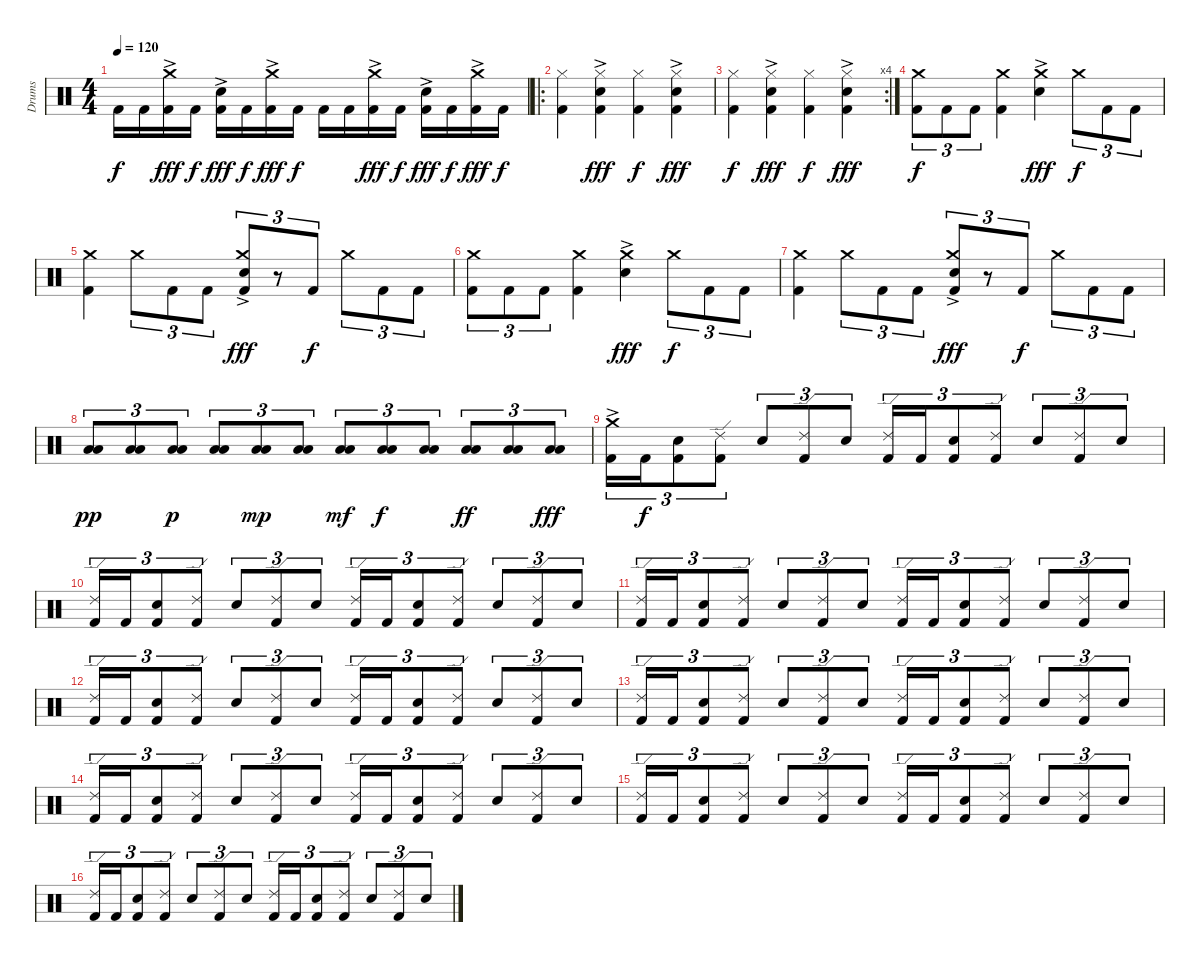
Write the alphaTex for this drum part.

\track ("Drums" "Drums") {instrument percussion}
\staff {score}
\articulation defaults
\ts (4 4)
\tempo 120
\clef neutral
\ks c "Kick (hit) 2".16{dy f} "Kick (hit) 2".16
("Crash medium (hit)"{ac} "Kick (hit) 2").16{dy fff} "Kick (hit) 2".16{dy f} ("Electric Snare (hit)"{ac} "Kick (hit) 2").16{dy fff} "Kick (hit) 2".16{dy f} ("Crash medium (hit)"{ac} "Kick (hit) 2").16{dy fff} "Kick (hit) 2".16{dy f} "Kick (hit) 2".16 "Kick (hit) 2".16 ("Crash medium (hit)"{ac} "Kick (hit) 2").16{dy fff} "Kick (hit) 2".16{dy f} ("Electric Snare (hit)"{ac} "Kick (hit) 2").16{dy fff} "Kick (hit) 2".16{dy f} ("Crash medium (hit)"{ac} "Kick (hit) 2").16{dy fff} "Kick (hit) 2".16{dy f} |
\ro
("Hi-Hat (closed)" "Kick (hit) 2").4 ("Hi-Hat (closed)" "Electric Snare (hit)"{ac} "Kick (hit) 2").4{dy fff} ("Hi-Hat (closed)" "Kick (hit) 2").4{dy f} ("Hi-Hat (closed)" "Electric Snare (hit)"{ac} "Kick (hit) 2").4{dy fff} |
\rc 4
("Hi-Hat (closed)" "Kick (hit) 2").4{dy f} ("Hi-Hat (closed)" "Electric Snare (hit)"{ac} "Kick (hit) 2").4{dy fff} ("Hi-Hat (closed)" "Kick (hit) 2").4{dy f} ("Hi-Hat (closed)" "Electric Snare (hit)"{ac} "Kick (hit) 2").4{dy fff} |
("Crash medium (hit)" "Kick (hit) 2").8{tu (3 2) dy f} "Kick (hit) 2".8{tu (3 2)} "Kick (hit) 2".8{tu (3 2)} ("Crash medium (hit)" "Kick (hit) 2").4 ("Crash medium (hit)" "Electric Snare (hit)"{ac}).4{dy fff} "Crash medium (hit)".8{tu (3 2) dy f} "Kick (hit) 2".8{tu (3 2)} "Kick (hit) 2".8{tu (3 2)} |
("Crash medium (hit)" "Kick (hit) 2").4 "Crash medium (hit)".8{tu (3 2)} "Kick (hit) 2".8{tu (3 2)} "Kick (hit) 2".8{tu (3 2)} ("Crash medium (hit)" "Electric Snare (hit)"{ac} "Kick (hit) 2").8{tu (3 2) dy fff} r.8{tu (3 2)} "Kick (hit) 2".8{tu (3 2) dy f} "Crash medium (hit)".8{tu (3 2)} "Kick (hit) 2".8{tu (3 2)} "Kick (hit) 2".8{tu (3 2)} |
("Crash medium (hit)" "Kick (hit) 2").8{tu (3 2)} "Kick (hit) 2".8{tu (3 2)} "Kick (hit) 2".8{tu (3 2)} ("Crash medium (hit)" "Kick (hit) 2").4 ("Crash medium (hit)" "Electric Snare (hit)"{ac}).4{dy fff} "Crash medium (hit)".8{tu (3 2) dy f} "Kick (hit) 2".8{tu (3 2)} "Kick (hit) 2".8{tu (3 2)} |
("Crash medium (hit)" "Kick (hit) 2").4 "Crash medium (hit)".8{tu (3 2)} "Kick (hit) 2".8{tu (3 2)} "Kick (hit) 2".8{tu (3 2)} ("Crash medium (hit)" "Electric Snare (hit)"{ac} "Kick (hit) 2").8{tu (3 2) dy fff} r.8{tu (3 2)} "Kick (hit) 2".8{tu (3 2) dy f} "Crash medium (hit)".8{tu (3 2)} "Kick (hit) 2".8{tu (3 2)} "Kick (hit) 2".8{tu (3 2)} |
("Low Tom (hit)" "Low Floor Tom (hit)").8{tu (3 2) dy pp} ("Low Tom (hit)" "Low Floor Tom (hit)").8{tu (3 2)} ("Low Tom (hit)" "Low Floor Tom (hit)").8{tu (3 2) dy p} ("Low Tom (hit)" "Low Floor Tom (hit)").8{tu (3 2)} ("Low Tom (hit)" "Low Floor Tom (hit)").8{tu (3 2) dy mp} ("Low Tom (hit)" "Low Floor Tom (hit)").8{tu (3 2)} ("Low Tom (hit)" "Low Floor Tom (hit)").8{tu (3 2) dy mf} ("Low Tom (hit)" "Low Floor Tom (hit)").8{tu (3 2) dy f} ("Low Tom (hit)" "Low Floor Tom (hit)").8{tu (3 2)} ("Low Tom (hit)" "Low Floor Tom (hit)").8{tu (3 2) dy ff} ("Low Tom (hit)" "Low Floor Tom (hit)").8{tu (3 2)} ("Low Tom (hit)" "Low Floor Tom (hit)").8{tu (3 2) dy fff} |
("Crash medium (hit)"{ac} "Kick (hit) 2").16{tu (3 2)} "Kick (hit) 2".16{tu (3 2) dy f} ("Electric Snare (hit)" "Kick (hit) 2").8{tu (3 2)} ("Ride (edge) 2" "Kick (hit) 2").8{tu (3 2)} "Electric Snare (hit)".8{tu (3 2)} ("Ride (edge) 2" "Kick (hit) 2").8{tu (3 2)} "Electric Snare (hit)".8{tu (3 2)} ("Ride (edge) 2" "Kick (hit) 2").16{tu (3 2)} "Kick (hit) 2".16{tu (3 2)} ("Electric Snare (hit)" "Kick (hit) 2").8{tu (3 2)} ("Ride (edge) 2" "Kick (hit) 2").8{tu (3 2)} "Electric Snare (hit)".8{tu (3 2)} ("Ride (edge) 2" "Kick (hit) 2").8{tu (3 2)} "Electric Snare (hit)".8{tu (3 2)} |
("Ride (edge) 2" "Kick (hit) 2").16{tu (3 2)} "Kick (hit) 2".16{tu (3 2)} ("Electric Snare (hit)" "Kick (hit) 2").8{tu (3 2)} ("Ride (edge) 2" "Kick (hit) 2").8{tu (3 2)} "Electric Snare (hit)".8{tu (3 2)} ("Ride (edge) 2" "Kick (hit) 2").8{tu (3 2)} "Electric Snare (hit)".8{tu (3 2)} ("Ride (edge) 2" "Kick (hit) 2").16{tu (3 2)} "Kick (hit) 2".16{tu (3 2)} ("Electric Snare (hit)" "Kick (hit) 2").8{tu (3 2)} ("Ride (edge) 2" "Kick (hit) 2").8{tu (3 2)} "Electric Snare (hit)".8{tu (3 2)} ("Ride (edge) 2" "Kick (hit) 2").8{tu (3 2)} "Electric Snare (hit)".8{tu (3 2)} |
("Ride (edge) 2" "Kick (hit) 2").16{tu (3 2)} "Kick (hit) 2".16{tu (3 2)} ("Electric Snare (hit)" "Kick (hit) 2").8{tu (3 2)} ("Ride (edge) 2" "Kick (hit) 2").8{tu (3 2)} "Electric Snare (hit)".8{tu (3 2)} ("Ride (edge) 2" "Kick (hit) 2").8{tu (3 2)} "Electric Snare (hit)".8{tu (3 2)} ("Ride (edge) 2" "Kick (hit) 2").16{tu (3 2)} "Kick (hit) 2".16{tu (3 2)} ("Electric Snare (hit)" "Kick (hit) 2").8{tu (3 2)} ("Ride (edge) 2" "Kick (hit) 2").8{tu (3 2)} "Electric Snare (hit)".8{tu (3 2)} ("Ride (edge) 2" "Kick (hit) 2").8{tu (3 2)} "Electric Snare (hit)".8{tu (3 2)} |
("Ride (edge) 2" "Kick (hit) 2").16{tu (3 2)} "Kick (hit) 2".16{tu (3 2)} ("Electric Snare (hit)" "Kick (hit) 2").8{tu (3 2)} ("Ride (edge) 2" "Kick (hit) 2").8{tu (3 2)} "Electric Snare (hit)".8{tu (3 2)} ("Ride (edge) 2" "Kick (hit) 2").8{tu (3 2)} "Electric Snare (hit)".8{tu (3 2)} ("Ride (edge) 2" "Kick (hit) 2").16{tu (3 2)} "Kick (hit) 2".16{tu (3 2)} ("Electric Snare (hit)" "Kick (hit) 2").8{tu (3 2)} ("Ride (edge) 2" "Kick (hit) 2").8{tu (3 2)} "Electric Snare (hit)".8{tu (3 2)} ("Ride (edge) 2" "Kick (hit) 2").8{tu (3 2)} "Electric Snare (hit)".8{tu (3 2)} |
("Ride (edge) 2" "Kick (hit) 2").16{tu (3 2)} "Kick (hit) 2".16{tu (3 2)} ("Electric Snare (hit)" "Kick (hit) 2").8{tu (3 2)} ("Ride (edge) 2" "Kick (hit) 2").8{tu (3 2)} "Electric Snare (hit)".8{tu (3 2)} ("Ride (edge) 2" "Kick (hit) 2").8{tu (3 2)} "Electric Snare (hit)".8{tu (3 2)} ("Ride (edge) 2" "Kick (hit) 2").16{tu (3 2)} "Kick (hit) 2".16{tu (3 2)} ("Electric Snare (hit)" "Kick (hit) 2").8{tu (3 2)} ("Ride (edge) 2" "Kick (hit) 2").8{tu (3 2)} "Electric Snare (hit)".8{tu (3 2)} ("Ride (edge) 2" "Kick (hit) 2").8{tu (3 2)} "Electric Snare (hit)".8{tu (3 2)} |
("Ride (edge) 2" "Kick (hit) 2").16{tu (3 2)} "Kick (hit) 2".16{tu (3 2)} ("Electric Snare (hit)" "Kick (hit) 2").8{tu (3 2)} ("Ride (edge) 2" "Kick (hit) 2").8{tu (3 2)} "Electric Snare (hit)".8{tu (3 2)} ("Ride (edge) 2" "Kick (hit) 2").8{tu (3 2)} "Electric Snare (hit)".8{tu (3 2)} ("Ride (edge) 2" "Kick (hit) 2").16{tu (3 2)} "Kick (hit) 2".16{tu (3 2)} ("Electric Snare (hit)" "Kick (hit) 2").8{tu (3 2)} ("Ride (edge) 2" "Kick (hit) 2").8{tu (3 2)} "Electric Snare (hit)".8{tu (3 2)} ("Ride (edge) 2" "Kick (hit) 2").8{tu (3 2)} "Electric Snare (hit)".8{tu (3 2)} |
("Ride (edge) 2" "Kick (hit) 2").16{tu (3 2)} "Kick (hit) 2".16{tu (3 2)} ("Electric Snare (hit)" "Kick (hit) 2").8{tu (3 2)} ("Ride (edge) 2" "Kick (hit) 2").8{tu (3 2)} "Electric Snare (hit)".8{tu (3 2)} ("Ride (edge) 2" "Kick (hit) 2").8{tu (3 2)} "Electric Snare (hit)".8{tu (3 2)} ("Ride (edge) 2" "Kick (hit) 2").16{tu (3 2)} "Kick (hit) 2".16{tu (3 2)} ("Electric Snare (hit)" "Kick (hit) 2").8{tu (3 2)} ("Ride (edge) 2" "Kick (hit) 2").8{tu (3 2)} "Electric Snare (hit)".8{tu (3 2)} ("Ride (edge) 2" "Kick (hit) 2").8{tu (3 2)} "Electric Snare (hit)".8{tu (3 2)} |
("Ride (edge) 2" "Kick (hit) 2").16{tu (3 2)} "Kick (hit) 2".16{tu (3 2)} ("Electric Snare (hit)" "Kick (hit) 2").8{tu (3 2)} ("Ride (edge) 2" "Kick (hit) 2").8{tu (3 2)} "Electric Snare (hit)".8{tu (3 2)} ("Ride (edge) 2" "Kick (hit) 2").8{tu (3 2)} "Electric Snare (hit)".8{tu (3 2)} ("Ride (edge) 2" "Kick (hit) 2").16{tu (3 2)} "Kick (hit) 2".16{tu (3 2)} ("Electric Snare (hit)" "Kick (hit) 2").8{tu (3 2)} ("Ride (edge) 2" "Kick (hit) 2").8{tu (3 2)} "Electric Snare (hit)".8{tu (3 2)} ("Ride (edge) 2" "Kick (hit) 2").8{tu (3 2)} "Electric Snare (hit)".8{tu (3 2)}
